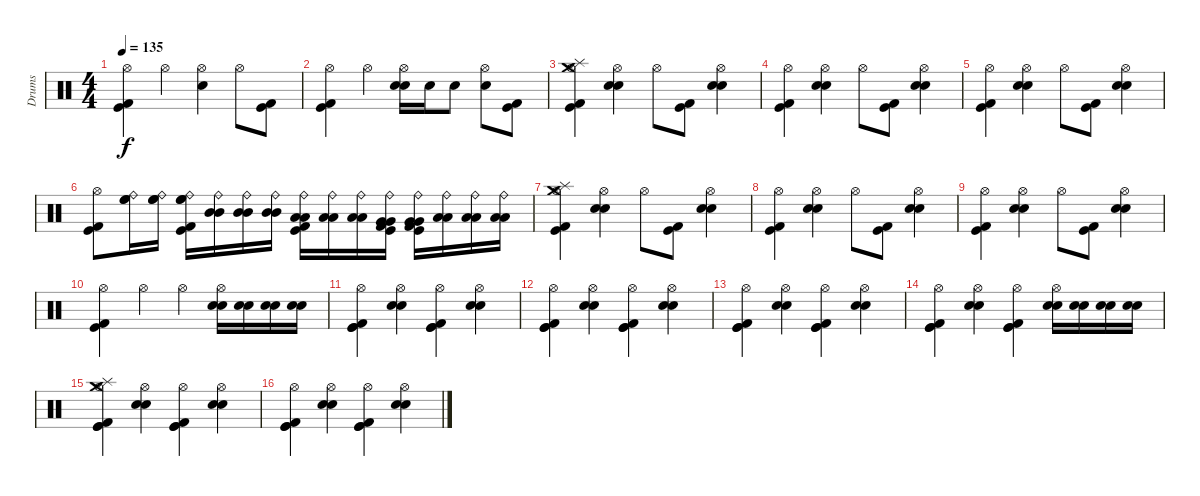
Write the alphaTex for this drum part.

\track ("Drums" "Drums") {instrument percussion}
\staff {score}
\articulation defaults
\ts (4 4)
\tempo 135
\clef neutral
\ks c
("Hi-Hat (open)" "Kick (hit)" "Kick (hit) 2").4{dy f} "Hi-Hat (open)".4 ("Hi-Hat (open)" "Snare (hit) 2").4 "Hi-Hat (open)".8 ("Kick (hit)" "Kick (hit) 2").8 |
("Hi-Hat (open)" "Kick (hit)" "Kick (hit) 2").4 "Hi-Hat (open)".4 ("Hi-Hat (open)" "Snare (hit) 2" "Snare (hit) 2").16 "Snare (hit) 2".16 "Snare (hit) 2".8 ("Hi-Hat (open)" "Snare (hit) 2").8 ("Kick (hit)" "Kick (hit) 2").8 |
("Hi-Hat (open)" "Splash (hit)" "Crash medium (hit)" "Kick (hit)" "Kick (hit) 2").4 ("Hi-Hat (open)" "Snare (hit) 2" "Snare (hit) 2").4 "Hi-Hat (open)".8 ("Kick (hit) 2" "Kick (hit)").8 ("Hi-Hat (open)" "Snare (hit) 2" "Snare (hit) 2").4 |
("Hi-Hat (open)" "Kick (hit) 2" "Kick (hit)").4 ("Hi-Hat (open)" "Snare (hit) 2" "Snare (hit) 2").4 "Hi-Hat (open)".8 ("Kick (hit) 2" "Kick (hit)").8 ("Hi-Hat (open)" "Snare (hit) 2" "Snare (hit) 2").4 |
("Hi-Hat (open)" "Kick (hit) 2" "Kick (hit)").4 ("Hi-Hat (open)" "Snare (hit) 2" "Snare (hit) 2").4 "Hi-Hat (open)".8 ("Kick (hit) 2" "Kick (hit)").8 ("Hi-Hat (open)" "Snare (hit) 2" "Snare (hit) 2").4 |
("Hi-Hat (open)" "Kick (hit) 2" "Kick (hit)").8 ("High Floor Tom (hit)" "High Floor Tom (hit)" "Ride (bell)").16 ("High Floor Tom (hit)" "High Floor Tom (hit)" "Ride (bell)").16 ("Kick (hit) 2" "Kick (hit)" "High Floor Tom (hit)" "High Floor Tom (hit)" "Ride (bell)").16 ("Mid Tom (hit)" "Mid Tom (hit)" "Ride (bell)").16 ("Mid Tom (hit)" "Mid Tom (hit)" "Ride (bell)").16 ("Mid Tom (hit)" "Mid Tom (hit)" "Ride (bell)").16 ("Kick (hit) 2" "Kick (hit)" "Low Tom (hit)" "Low Tom (hit)" "Ride (bell)").16 ("Low Tom (hit)" "Low Tom (hit)" "Ride (bell)").16 ("Low Tom (hit)" "Low Tom (hit)" "Ride (bell)").16 ("Kick (hit) 2" "Kick (hit)" "Very Low Tom (hit)" "Very Low Tom (hit)" "Ride (bell)").16 ("Kick (hit) 2" "Kick (hit)" "Very Low Tom (hit)" "Very Low Tom (hit)" "Ride (bell)").16 ("Low Floor Tom (hit)" "Low Floor Tom (hit)" "Ride (bell)").16 ("Low Floor Tom (hit)" "Low Floor Tom (hit)" "Ride (bell)").16 ("Low Floor Tom (hit)" "Low Floor Tom (hit)" "Ride (bell)").16 |
("Hi-Hat (open)" "Splash (hit)" "Crash medium (hit)" "Kick (hit)" "Kick (hit) 2").4 ("Hi-Hat (open)" "Snare (hit) 2" "Snare (hit) 2").4 "Hi-Hat (open)".8 ("Kick (hit) 2" "Kick (hit)").8 ("Hi-Hat (open)" "Snare (hit) 2" "Snare (hit) 2").4 |
("Hi-Hat (open)" "Kick (hit) 2" "Kick (hit)").4 ("Hi-Hat (open)" "Snare (hit) 2" "Snare (hit) 2").4 "Hi-Hat (open)".8 ("Kick (hit) 2" "Kick (hit)").8 ("Hi-Hat (open)" "Snare (hit) 2" "Snare (hit) 2").4 |
("Hi-Hat (open)" "Kick (hit) 2" "Kick (hit)").4 ("Hi-Hat (open)" "Snare (hit) 2" "Snare (hit) 2").4 "Hi-Hat (open)".8 ("Kick (hit) 2" "Kick (hit)").8 ("Hi-Hat (open)" "Snare (hit) 2" "Snare (hit) 2").4 |
("Hi-Hat (open)" "Kick (hit) 2" "Kick (hit)").4 "Hi-Hat (open)".4 "Hi-Hat (open)".4 ("Hi-Hat (open)" "Snare (hit) 2" "Snare (hit) 2").16 ("Snare (hit) 2" "Snare (hit) 2").16 ("Snare (hit) 2" "Snare (hit) 2").16 ("Snare (hit) 2" "Snare (hit) 2").16 |
("Hi-Hat (open)" "Kick (hit)" "Kick (hit) 2" "Kick (hit)").4 ("Hi-Hat (open)" "Snare (hit) 2" "Snare (hit) 2").4 ("Hi-Hat (open)" "Kick (hit)" "Kick (hit) 2" "Kick (hit)").4 ("Hi-Hat (open)" "Snare (hit) 2" "Snare (hit) 2").4 |
("Hi-Hat (open)" "Kick (hit)" "Kick (hit) 2" "Kick (hit)").4 ("Hi-Hat (open)" "Snare (hit) 2" "Snare (hit) 2").4 ("Hi-Hat (open)" "Kick (hit)" "Kick (hit) 2" "Kick (hit)").4 ("Hi-Hat (open)" "Snare (hit) 2" "Snare (hit) 2").4 |
("Hi-Hat (open)" "Kick (hit)" "Kick (hit) 2" "Kick (hit)").4 ("Hi-Hat (open)" "Snare (hit) 2" "Snare (hit) 2").4 ("Hi-Hat (open)" "Kick (hit)" "Kick (hit) 2" "Kick (hit)").4 ("Hi-Hat (open)" "Snare (hit) 2" "Snare (hit) 2").4 |
("Hi-Hat (open)" "Kick (hit)" "Kick (hit) 2" "Kick (hit)").4 ("Hi-Hat (open)" "Snare (hit) 2" "Snare (hit) 2").4 ("Hi-Hat (open)" "Kick (hit)" "Kick (hit) 2" "Kick (hit)").4 ("Hi-Hat (open)" "Snare (hit) 2" "Snare (hit) 2").16 ("Snare (hit) 2" "Snare (hit) 2").16 ("Snare (hit) 2" "Snare (hit) 2").16 ("Snare (hit) 2" "Snare (hit) 2").16 |
("Hi-Hat (open)" "Kick (hit)" "Kick (hit) 2" "Kick (hit)" "Splash (hit)" "Crash medium (hit)").4 ("Hi-Hat (open)" "Snare (hit) 2" "Snare (hit) 2").4 ("Hi-Hat (open)" "Kick (hit)" "Kick (hit) 2" "Kick (hit)").4 ("Hi-Hat (open)" "Snare (hit) 2" "Snare (hit) 2").4 |
("Hi-Hat (open)" "Kick (hit)" "Kick (hit) 2" "Kick (hit)").4 ("Hi-Hat (open)" "Snare (hit) 2" "Snare (hit) 2").4 ("Hi-Hat (open)" "Kick (hit)" "Kick (hit) 2" "Kick (hit)").4 ("Hi-Hat (open)" "Snare (hit) 2" "Snare (hit) 2").4
